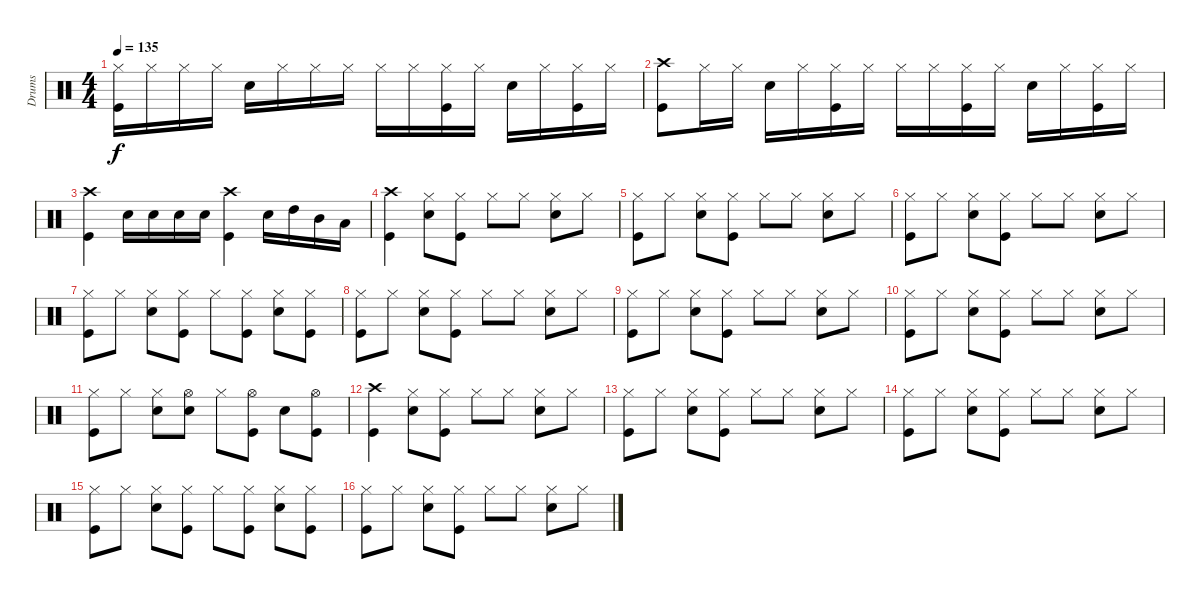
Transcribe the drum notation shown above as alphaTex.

\track ("Drums" "Drums") {instrument percussion}
\staff {score}
\articulation defaults
\ts (4 4)
\tempo 135
\clef neutral
\ks c
("Kick (hit)" "Hi-Hat (closed)").16{dy f} "Hi-Hat (closed)".16 "Hi-Hat (closed)".16 "Hi-Hat (closed)".16 "Electric Snare (hit)".16 "Hi-Hat (closed)".16 "Hi-Hat (closed)".16 "Hi-Hat (closed)".16 "Hi-Hat (closed)".16 "Hi-Hat (closed)".16 ("Kick (hit)" "Hi-Hat (closed)").16 "Hi-Hat (closed)".16 "Electric Snare (hit)".16 "Hi-Hat (closed)".16 ("Kick (hit)" "Hi-Hat (closed)").16 "Hi-Hat (closed)".16 |
("Kick (hit)" "Crash high (hit)").8 "Hi-Hat (closed)".16 "Hi-Hat (closed)".16 "Electric Snare (hit)".16 "Hi-Hat (closed)".16 ("Kick (hit)" "Hi-Hat (closed)").16 "Hi-Hat (closed)".16 "Hi-Hat (closed)".16 "Hi-Hat (closed)".16 ("Kick (hit)" "Hi-Hat (closed)").16 "Hi-Hat (closed)".16 "Electric Snare (hit)".16 "Hi-Hat (closed)".16 ("Kick (hit)" "Hi-Hat (closed)").16 "Hi-Hat (closed)".16 |
("Kick (hit)" "Crash high (hit)").4 "Electric Snare (hit)".16 "Electric Snare (hit)".16 "Electric Snare (hit)".16 "Electric Snare (hit)".16 ("Kick (hit)" "Crash high (hit)").4 "Electric Snare (hit)".16 "High Tom (hit)".16 "Mid Tom (hit)".16 "Low Tom (hit)".16 |
("Kick (hit)" "Crash high (hit)").4 ("Electric Snare (hit)" "Hi-Hat (closed)").8 ("Kick (hit)" "Hi-Hat (closed)").8 "Hi-Hat (closed)".8 "Hi-Hat (closed)".8 ("Electric Snare (hit)" "Hi-Hat (closed)").8 "Hi-Hat (closed)".8 |
("Kick (hit)" "Hi-Hat (closed)").8 "Hi-Hat (closed)".8 ("Electric Snare (hit)" "Hi-Hat (closed)").8 ("Kick (hit)" "Hi-Hat (closed)").8 "Hi-Hat (closed)".8 "Hi-Hat (closed)".8 ("Electric Snare (hit)" "Hi-Hat (closed)").8 "Hi-Hat (closed)".8 |
("Kick (hit)" "Hi-Hat (closed)").8 "Hi-Hat (closed)".8 ("Electric Snare (hit)" "Hi-Hat (closed)").8 ("Kick (hit)" "Hi-Hat (closed)").8 "Hi-Hat (closed)".8 "Hi-Hat (closed)".8 ("Electric Snare (hit)" "Hi-Hat (closed)").8 "Hi-Hat (closed)".8 |
("Kick (hit)" "Hi-Hat (closed)").8 "Hi-Hat (closed)".8 ("Electric Snare (hit)" "Hi-Hat (closed)").8 ("Kick (hit)" "Hi-Hat (closed)").8 "Hi-Hat (closed)".8 ("Kick (hit)" "Hi-Hat (closed)").8 ("Electric Snare (hit)" "Hi-Hat (closed)").8 ("Kick (hit)" "Hi-Hat (closed)").8 |
("Kick (hit)" "Hi-Hat (closed)").8 "Hi-Hat (closed)".8 ("Electric Snare (hit)" "Hi-Hat (closed)").8 ("Kick (hit)" "Hi-Hat (closed)").8 "Hi-Hat (closed)".8 "Hi-Hat (closed)".8 ("Electric Snare (hit)" "Hi-Hat (closed)").8 "Hi-Hat (closed)".8 |
("Kick (hit)" "Hi-Hat (closed)").8 "Hi-Hat (closed)".8 ("Electric Snare (hit)" "Hi-Hat (closed)").8 ("Kick (hit)" "Hi-Hat (closed)").8 "Hi-Hat (closed)".8 "Hi-Hat (closed)".8 ("Electric Snare (hit)" "Hi-Hat (closed)").8 "Hi-Hat (closed)".8 |
("Kick (hit)" "Hi-Hat (closed)").8 "Hi-Hat (closed)".8 ("Electric Snare (hit)" "Hi-Hat (closed)").8 ("Kick (hit)" "Hi-Hat (closed)").8 "Hi-Hat (closed)".8 "Hi-Hat (closed)".8 ("Electric Snare (hit)" "Hi-Hat (closed)").8 "Hi-Hat (closed)".8 |
("Kick (hit)" "Hi-Hat (closed)").8 "Hi-Hat (closed)".8 ("Electric Snare (hit)" "Hi-Hat (closed)").8 ("Electric Snare (hit)" "Hi-Hat (open)").8 "Hi-Hat (closed)".8 ("Kick (hit)" "Hi-Hat (open)").8 "Electric Snare (hit)".8 ("Kick (hit)" "Hi-Hat (open)").8 |
("Kick (hit)" "Crash high (hit)").4 ("Electric Snare (hit)" "Hi-Hat (closed)").8 ("Kick (hit)" "Hi-Hat (closed)").8 "Hi-Hat (closed)".8 "Hi-Hat (closed)".8 ("Electric Snare (hit)" "Hi-Hat (closed)").8 "Hi-Hat (closed)".8 |
("Kick (hit)" "Hi-Hat (closed)").8 "Hi-Hat (closed)".8 ("Electric Snare (hit)" "Hi-Hat (closed)").8 ("Kick (hit)" "Hi-Hat (closed)").8 "Hi-Hat (closed)".8 "Hi-Hat (closed)".8 ("Electric Snare (hit)" "Hi-Hat (closed)").8 "Hi-Hat (closed)".8 |
("Kick (hit)" "Hi-Hat (closed)").8 "Hi-Hat (closed)".8 ("Electric Snare (hit)" "Hi-Hat (closed)").8 ("Kick (hit)" "Hi-Hat (closed)").8 "Hi-Hat (closed)".8 "Hi-Hat (closed)".8 ("Electric Snare (hit)" "Hi-Hat (closed)").8 "Hi-Hat (closed)".8 |
("Kick (hit)" "Hi-Hat (closed)").8 "Hi-Hat (closed)".8 ("Electric Snare (hit)" "Hi-Hat (closed)").8 ("Kick (hit)" "Hi-Hat (closed)").8 "Hi-Hat (closed)".8 ("Kick (hit)" "Hi-Hat (closed)").8 ("Electric Snare (hit)" "Hi-Hat (closed)").8 ("Kick (hit)" "Hi-Hat (closed)").8 |
("Kick (hit)" "Hi-Hat (closed)").8 "Hi-Hat (closed)".8 ("Electric Snare (hit)" "Hi-Hat (closed)").8 ("Kick (hit)" "Hi-Hat (closed)").8 "Hi-Hat (closed)".8 "Hi-Hat (closed)".8 ("Electric Snare (hit)" "Hi-Hat (closed)").8 "Hi-Hat (closed)".8
